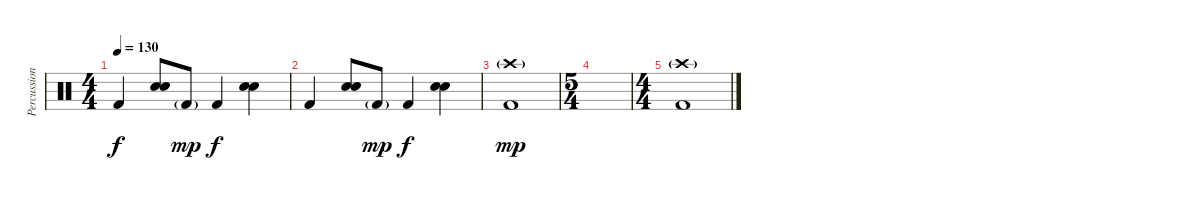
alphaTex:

\track ("Percussion" "Percussion") {instrument percussion}
\staff {score}
\articulation defaults
\ts (4 4)
\tempo 130
\clef neutral
\ks c "Kick (hit) 2".4{dy f}
("Snare (hit) 2" "Hand Clap (hit)").8 "Kick (hit) 2"{g}.8{dy mp} "Kick (hit) 2".4{dy f} ("Snare (hit) 2" "Hand Clap (hit)").4 |
"Kick (hit) 2".4 ("Snare (hit) 2" "Hand Clap (hit)").8 "Kick (hit) 2"{g}.8{dy mp} "Kick (hit) 2".4{dy f} ("Snare (hit) 2" "Hand Clap (hit)").4 |
("Crash high (hit)"{g} "Kick (hit) 2").1{dy mp} |
\ts (5 4)
|
\ts (4 4)
("Crash high (hit)"{g} "Kick (hit) 2").1
